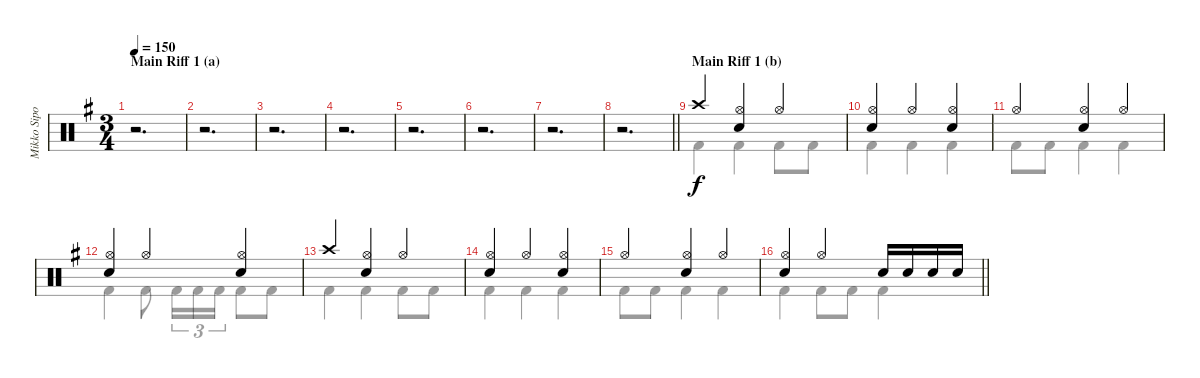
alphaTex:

\track ("Mikko Sipola (drums)" "Mikko Sipo") {instrument percussion}
\staff {score}
\articulation defaults
\voice
\ts (3 4)
\section ("" "Main Riff 1 (a)")
\tempo 150
\clef neutral
\ks eminor
r.2{d dy f} |
r.2{d} |
r.2{d} |
r.2{d} |
r.2{d} |
r.2{d} |
r.2{d} |
\barLineRight lightlight
r.2{d} |
\section ("" "Main Riff 1 (b)")
"Crash high (hit)".4 ("Hi-Hat (open)" "Electric Snare (hit)").4 "Hi-Hat (open)".4 |
("Hi-Hat (open)" "Electric Snare (hit)").4 "Hi-Hat (open)".4 ("Hi-Hat (open)" "Electric Snare (hit)").4 |
"Hi-Hat (open)".4 ("Hi-Hat (open)" "Electric Snare (hit)").4 "Hi-Hat (open)".4 |
("Hi-Hat (open)" "Electric Snare (hit)").4 "Hi-Hat (open)".4 ("Hi-Hat (open)" "Electric Snare (hit)").4 |
"Crash high (hit)".4 ("Hi-Hat (open)" "Electric Snare (hit)").4 "Hi-Hat (open)".4 |
("Hi-Hat (open)" "Electric Snare (hit)").4 "Hi-Hat (open)".4 ("Hi-Hat (open)" "Electric Snare (hit)").4 |
"Hi-Hat (open)".4 ("Hi-Hat (open)" "Electric Snare (hit)").4 "Hi-Hat (open)".4 |
\barLineRight lightlight
("Hi-Hat (open)" "Electric Snare (hit)").4 "Hi-Hat (open)".4 "Electric Snare (hit)".16 "Electric Snare (hit)".16 "Electric Snare (hit)".16 "Electric Snare (hit)".16
\voice
\clef neutral
\ottava regular
\simile none
\ks eminor
|
|
|
|
|
|
|
\barLineRight lightlight
|
"Kick (hit) 2".4 "Kick (hit) 2".4 "Kick (hit) 2".8 "Kick (hit) 2".8 |
"Kick (hit) 2".4 "Kick (hit) 2".4 "Kick (hit) 2".4 |
"Kick (hit) 2".8 "Kick (hit) 2".8 "Kick (hit) 2".4 "Kick (hit) 2".4 |
"Kick (hit) 2".4 "Kick (hit) 2".8 "Kick (hit) 2".16{tu (3 2)} "Kick (hit) 2".16{tu (3 2)} "Kick (hit) 2".16{tu (3 2)} "Kick (hit) 2".8 "Kick (hit) 2".8 |
"Kick (hit) 2".4 "Kick (hit) 2".4 "Kick (hit) 2".8 "Kick (hit) 2".8 |
"Kick (hit) 2".4 "Kick (hit) 2".4 "Kick (hit) 2".4 |
"Kick (hit) 2".8 "Kick (hit) 2".8 "Kick (hit) 2".4 "Kick (hit) 2".4 |
\barLineRight lightlight "Kick (hit) 2".4 "Kick (hit) 2".8 "Kick (hit) 2".8 "Kick (hit) 2".4
